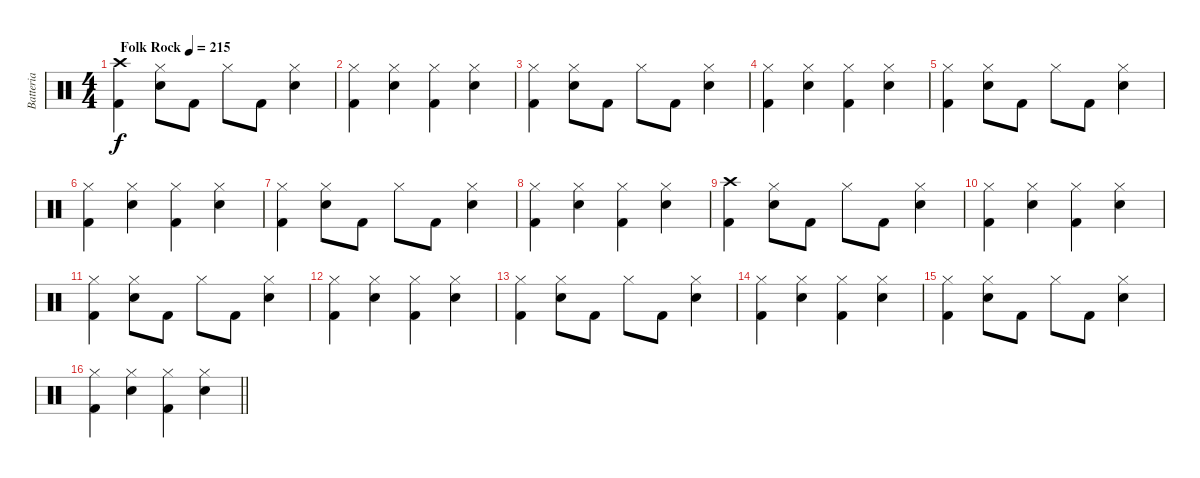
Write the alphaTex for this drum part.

\track ("Batteria" "Batteria") {instrument percussion}
\staff {score}
\articulation defaults
\ts (4 4)
\tempo (215 "Folk Rock")
\clef neutral
\ks c
("Crash high (hit)" "Kick (hit) 2").4{dy f} ("Hi-Hat (closed)" "Electric Snare (hit)").8 "Kick (hit) 2".8 "Hi-Hat (closed)".8 "Kick (hit) 2".8 ("Hi-Hat (closed)" "Electric Snare (hit)").4 |
("Hi-Hat (closed)" "Kick (hit) 2").4 ("Hi-Hat (closed)" "Electric Snare (hit)").4 ("Hi-Hat (closed)" "Kick (hit) 2").4 ("Hi-Hat (closed)" "Electric Snare (hit)").4 |
("Hi-Hat (closed)" "Kick (hit) 2").4 ("Hi-Hat (closed)" "Electric Snare (hit)").8 "Kick (hit) 2".8 "Hi-Hat (closed)".8 "Kick (hit) 2".8 ("Hi-Hat (closed)" "Electric Snare (hit)").4 |
("Hi-Hat (closed)" "Kick (hit) 2").4 ("Hi-Hat (closed)" "Electric Snare (hit)").4 ("Hi-Hat (closed)" "Kick (hit) 2").4 ("Hi-Hat (closed)" "Electric Snare (hit)").4 |
("Hi-Hat (closed)" "Kick (hit) 2").4 ("Hi-Hat (closed)" "Electric Snare (hit)").8 "Kick (hit) 2".8 "Hi-Hat (closed)".8 "Kick (hit) 2".8 ("Hi-Hat (closed)" "Electric Snare (hit)").4 |
("Hi-Hat (closed)" "Kick (hit) 2").4 ("Hi-Hat (closed)" "Electric Snare (hit)").4 ("Hi-Hat (closed)" "Kick (hit) 2").4 ("Hi-Hat (closed)" "Electric Snare (hit)").4 |
("Hi-Hat (closed)" "Kick (hit) 2").4 ("Hi-Hat (closed)" "Electric Snare (hit)").8 "Kick (hit) 2".8 "Hi-Hat (closed)".8 "Kick (hit) 2".8 ("Hi-Hat (closed)" "Electric Snare (hit)").4 |
("Hi-Hat (closed)" "Kick (hit) 2").4 ("Hi-Hat (closed)" "Electric Snare (hit)").4 ("Hi-Hat (closed)" "Kick (hit) 2").4 ("Hi-Hat (closed)" "Electric Snare (hit)").4 |
("Crash high (hit)" "Kick (hit) 2").4 ("Hi-Hat (closed)" "Electric Snare (hit)").8 "Kick (hit) 2".8 "Hi-Hat (closed)".8 "Kick (hit) 2".8 ("Hi-Hat (closed)" "Electric Snare (hit)").4 |
("Hi-Hat (closed)" "Kick (hit) 2").4 ("Hi-Hat (closed)" "Electric Snare (hit)").4 ("Hi-Hat (closed)" "Kick (hit) 2").4 ("Hi-Hat (closed)" "Electric Snare (hit)").4 |
("Hi-Hat (closed)" "Kick (hit) 2").4 ("Hi-Hat (closed)" "Electric Snare (hit)").8 "Kick (hit) 2".8 "Hi-Hat (closed)".8 "Kick (hit) 2".8 ("Hi-Hat (closed)" "Electric Snare (hit)").4 |
("Hi-Hat (closed)" "Kick (hit) 2").4 ("Hi-Hat (closed)" "Electric Snare (hit)").4 ("Hi-Hat (closed)" "Kick (hit) 2").4 ("Hi-Hat (closed)" "Electric Snare (hit)").4 |
("Hi-Hat (closed)" "Kick (hit) 2").4 ("Hi-Hat (closed)" "Electric Snare (hit)").8 "Kick (hit) 2".8 "Hi-Hat (closed)".8 "Kick (hit) 2".8 ("Hi-Hat (closed)" "Electric Snare (hit)").4 |
("Hi-Hat (closed)" "Kick (hit) 2").4 ("Hi-Hat (closed)" "Electric Snare (hit)").4 ("Hi-Hat (closed)" "Kick (hit) 2").4 ("Hi-Hat (closed)" "Electric Snare (hit)").4 |
("Hi-Hat (closed)" "Kick (hit) 2").4 ("Hi-Hat (closed)" "Electric Snare (hit)").8 "Kick (hit) 2".8 "Hi-Hat (closed)".8 "Kick (hit) 2".8 ("Hi-Hat (closed)" "Electric Snare (hit)").4 |
\barLineRight lightlight
("Hi-Hat (closed)" "Kick (hit) 2").4 ("Hi-Hat (closed)" "Electric Snare (hit)").4 ("Hi-Hat (closed)" "Kick (hit) 2").4 ("Hi-Hat (closed)" "Electric Snare (hit)").4
